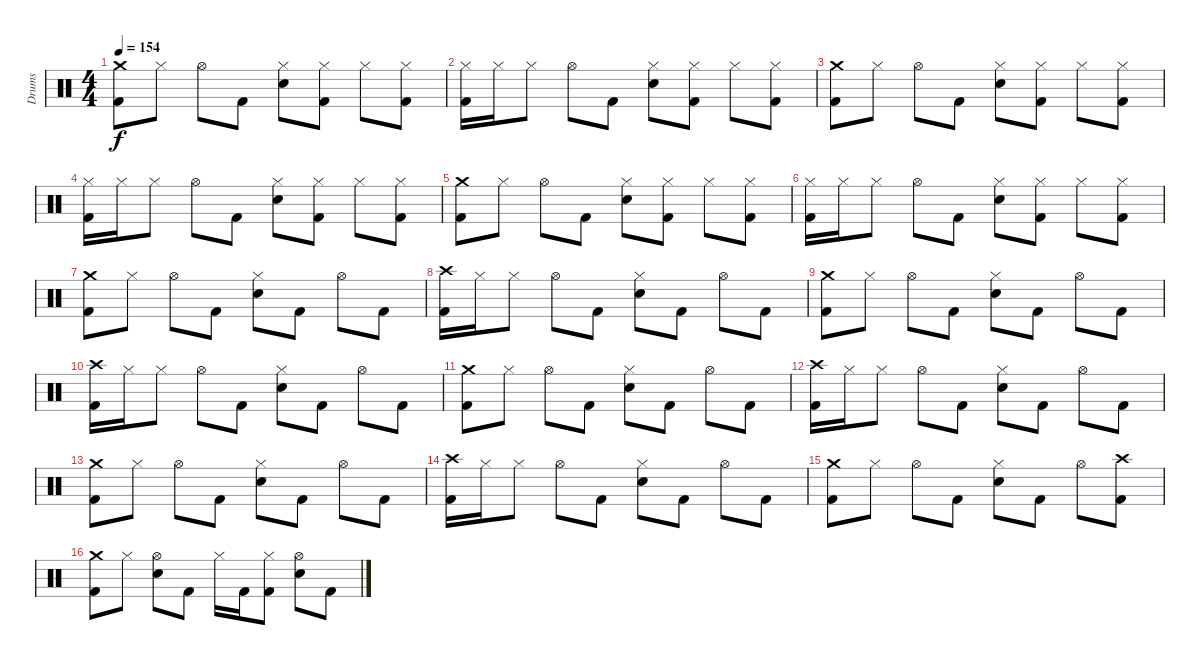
\track ("Drums" "Drums") {instrument percussion}
\staff {score}
\articulation defaults
\ts (4 4)
\tempo 154
\clef neutral
\ks c
("Crash medium (hit)" "Kick (hit) 2").8{dy f} "Hi-Hat (closed)".8 "Hi-Hat (open)".8 "Kick (hit) 2".8 ("Hi-Hat (closed)" "Electric Snare (hit)").8 ("Hi-Hat (closed)" "Kick (hit) 2").8 "Hi-Hat (closed)".8 ("Hi-Hat (closed)" "Kick (hit) 2").8 |
("Hi-Hat (closed)" "Kick (hit) 2").16 "Hi-Hat (closed)".16 "Hi-Hat (closed)".8 "Hi-Hat (open)".8 "Kick (hit) 2".8 ("Hi-Hat (closed)" "Electric Snare (hit)").8 ("Hi-Hat (closed)" "Kick (hit) 2").8 "Hi-Hat (closed)".8 ("Hi-Hat (closed)" "Kick (hit) 2").8 |
("Crash medium (hit)" "Kick (hit) 2").8 "Hi-Hat (closed)".8 "Hi-Hat (open)".8 "Kick (hit) 2".8 ("Hi-Hat (closed)" "Electric Snare (hit)").8 ("Hi-Hat (closed)" "Kick (hit) 2").8 "Hi-Hat (closed)".8 ("Hi-Hat (closed)" "Kick (hit) 2").8 |
("Hi-Hat (closed)" "Kick (hit) 2").16 "Hi-Hat (closed)".16 "Hi-Hat (closed)".8 "Hi-Hat (open)".8 "Kick (hit) 2".8 ("Hi-Hat (closed)" "Electric Snare (hit)").8 ("Hi-Hat (closed)" "Kick (hit) 2").8 "Hi-Hat (closed)".8 ("Hi-Hat (closed)" "Kick (hit) 2").8 |
("Crash medium (hit)" "Kick (hit) 2").8 "Hi-Hat (closed)".8 "Hi-Hat (open)".8 "Kick (hit) 2".8 ("Hi-Hat (closed)" "Electric Snare (hit)").8 ("Hi-Hat (closed)" "Kick (hit) 2").8 "Hi-Hat (closed)".8 ("Hi-Hat (closed)" "Kick (hit) 2").8 |
("Hi-Hat (closed)" "Kick (hit) 2").16 "Hi-Hat (closed)".16 "Hi-Hat (closed)".8 "Hi-Hat (open)".8 "Kick (hit) 2".8 ("Hi-Hat (closed)" "Electric Snare (hit)").8 ("Hi-Hat (closed)" "Kick (hit) 2").8 "Hi-Hat (closed)".8 ("Hi-Hat (closed)" "Kick (hit) 2").8 |
("Crash medium (hit)" "Kick (hit) 2").8 "Hi-Hat (closed)".8 "Hi-Hat (open)".8 "Kick (hit) 2".8 ("Hi-Hat (closed)" "Electric Snare (hit)").8 "Kick (hit) 2".8 "Hi-Hat (open)".8 "Kick (hit) 2".8 |
("Crash high (hit)" "Kick (hit) 2").16 "Hi-Hat (closed)".16 "Hi-Hat (closed)".8 "Hi-Hat (open)".8 "Kick (hit) 2".8 ("Hi-Hat (closed)" "Electric Snare (hit)").8 "Kick (hit) 2".8 "Hi-Hat (open)".8 "Kick (hit) 2".8 |
("Crash medium (hit)" "Kick (hit) 2").8 "Hi-Hat (closed)".8 "Hi-Hat (open)".8 "Kick (hit) 2".8 ("Hi-Hat (closed)" "Electric Snare (hit)").8 "Kick (hit) 2".8 "Hi-Hat (open)".8 "Kick (hit) 2".8 |
("Crash high (hit)" "Kick (hit) 2").16 "Hi-Hat (closed)".16 "Hi-Hat (closed)".8 "Hi-Hat (open)".8 "Kick (hit) 2".8 ("Hi-Hat (closed)" "Electric Snare (hit)").8 "Kick (hit) 2".8 "Hi-Hat (open)".8 "Kick (hit) 2".8 |
("Crash medium (hit)" "Kick (hit) 2").8 "Hi-Hat (closed)".8 "Hi-Hat (open)".8 "Kick (hit) 2".8 ("Hi-Hat (closed)" "Electric Snare (hit)").8 "Kick (hit) 2".8 "Hi-Hat (open)".8 "Kick (hit) 2".8 |
("Crash high (hit)" "Kick (hit) 2").16 "Hi-Hat (closed)".16 "Hi-Hat (closed)".8 "Hi-Hat (open)".8 "Kick (hit) 2".8 ("Hi-Hat (closed)" "Electric Snare (hit)").8 "Kick (hit) 2".8 "Hi-Hat (open)".8 "Kick (hit) 2".8 |
("Crash medium (hit)" "Kick (hit) 2").8 "Hi-Hat (closed)".8 "Hi-Hat (open)".8 "Kick (hit) 2".8 ("Hi-Hat (closed)" "Electric Snare (hit)").8 "Kick (hit) 2".8 "Hi-Hat (open)".8 "Kick (hit) 2".8 |
("Crash high (hit)" "Kick (hit) 2").16 "Hi-Hat (closed)".16 "Hi-Hat (closed)".8 "Hi-Hat (open)".8 "Kick (hit) 2".8 ("Hi-Hat (closed)" "Electric Snare (hit)").8 "Kick (hit) 2".8 "Hi-Hat (open)".8 "Kick (hit) 2".8 |
("Crash medium (hit)" "Kick (hit) 2").8 "Hi-Hat (closed)".8 "Hi-Hat (open)".8 "Kick (hit) 2".8 ("Hi-Hat (closed)" "Electric Snare (hit)").8 "Kick (hit) 2".8 "Hi-Hat (open)".8 ("Crash high (hit)" "Kick (hit) 2").8 |
("Crash medium (hit)" "Kick (hit) 2").8 "Hi-Hat (closed)".8 ("Electric Snare (hit)" "Hi-Hat (open)").8 "Kick (hit) 2".8 "Hi-Hat (closed)".16 "Kick (hit) 2".16 ("Kick (hit) 2" "Hi-Hat (closed)").8 ("Hi-Hat (open)" "Electric Snare (hit)").8 "Kick (hit) 2".8
